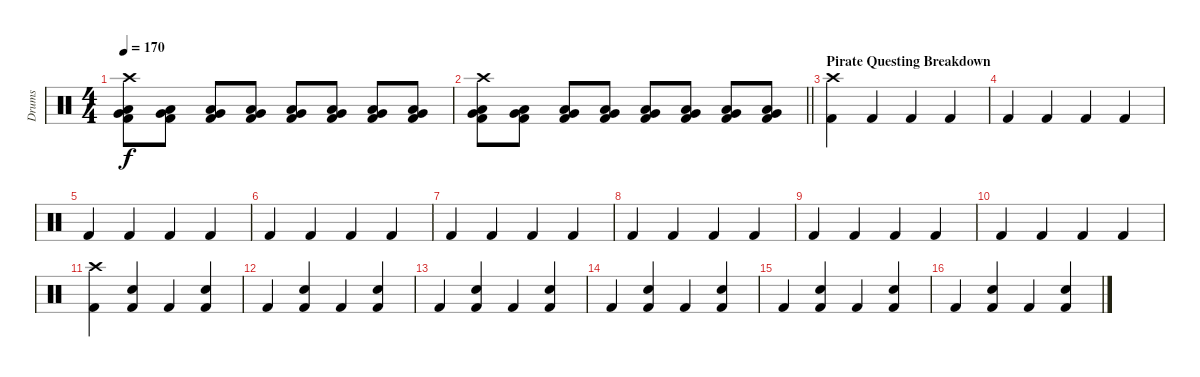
\track ("Drums" "Drums") {instrument percussion}
\staff {score}
\articulation defaults
\ts (4 4)
\tempo 170
\clef neutral
\ks c
("Crash high (hit)" "Low Tom (hit)" "Very Low Tom (hit)" "Kick (hit) 2").8{dy f} ("Low Tom (hit)" "Very Low Tom (hit)" "Kick (hit) 2").8 ("Low Tom (hit)" "Very Low Tom (hit)" "Kick (hit) 2").8 ("Low Tom (hit)" "Very Low Tom (hit)" "Kick (hit) 2").8 ("Low Tom (hit)" "Very Low Tom (hit)" "Kick (hit) 2").8 ("Low Tom (hit)" "Very Low Tom (hit)" "Kick (hit) 2").8 ("Low Tom (hit)" "Very Low Tom (hit)" "Kick (hit) 2").8 ("Low Tom (hit)" "Very Low Tom (hit)" "Kick (hit) 2").8 |
\barLineRight lightlight
("Crash high (hit)" "Low Tom (hit)" "Very Low Tom (hit)" "Kick (hit) 2").8 ("Low Tom (hit)" "Very Low Tom (hit)" "Kick (hit) 2").8 ("Low Tom (hit)" "Very Low Tom (hit)" "Kick (hit) 2").8 ("Low Tom (hit)" "Very Low Tom (hit)" "Kick (hit) 2").8 ("Low Tom (hit)" "Very Low Tom (hit)" "Kick (hit) 2").8 ("Low Tom (hit)" "Very Low Tom (hit)" "Kick (hit) 2").8 ("Low Tom (hit)" "Very Low Tom (hit)" "Kick (hit) 2").8 ("Low Tom (hit)" "Very Low Tom (hit)" "Kick (hit) 2").8 |
\section ("" "Pirate Questing Breakdown")
("Crash high (hit)" "Kick (hit) 2").4 "Kick (hit) 2".4 "Kick (hit) 2".4 "Kick (hit) 2".4 |
"Kick (hit) 2".4 "Kick (hit) 2".4 "Kick (hit) 2".4 "Kick (hit) 2".4 |
"Kick (hit) 2".4 "Kick (hit) 2".4 "Kick (hit) 2".4 "Kick (hit) 2".4 |
"Kick (hit) 2".4 "Kick (hit) 2".4 "Kick (hit) 2".4 "Kick (hit) 2".4 |
"Kick (hit) 2".4 "Kick (hit) 2".4 "Kick (hit) 2".4 "Kick (hit) 2".4 |
"Kick (hit) 2".4 "Kick (hit) 2".4 "Kick (hit) 2".4 "Kick (hit) 2".4 |
"Kick (hit) 2".4 "Kick (hit) 2".4 "Kick (hit) 2".4 "Kick (hit) 2".4 |
"Kick (hit) 2".4 "Kick (hit) 2".4 "Kick (hit) 2".4 "Kick (hit) 2".4 |
("Crash high (hit)" "Kick (hit) 2").4 ("Snare (hit) 2" "Kick (hit) 2").4 "Kick (hit) 2".4 ("Snare (hit) 2" "Kick (hit) 2").4 |
"Kick (hit) 2".4 ("Snare (hit) 2" "Kick (hit) 2").4 "Kick (hit) 2".4 ("Snare (hit) 2" "Kick (hit) 2").4 |
"Kick (hit) 2".4 ("Snare (hit) 2" "Kick (hit) 2").4 "Kick (hit) 2".4 ("Snare (hit) 2" "Kick (hit) 2").4 |
"Kick (hit) 2".4 ("Snare (hit) 2" "Kick (hit) 2").4 "Kick (hit) 2".4 ("Snare (hit) 2" "Kick (hit) 2").4 |
"Kick (hit) 2".4 ("Snare (hit) 2" "Kick (hit) 2").4 "Kick (hit) 2".4 ("Snare (hit) 2" "Kick (hit) 2").4 |
"Kick (hit) 2".4 ("Snare (hit) 2" "Kick (hit) 2").4 "Kick (hit) 2".4 ("Snare (hit) 2" "Kick (hit) 2").4
